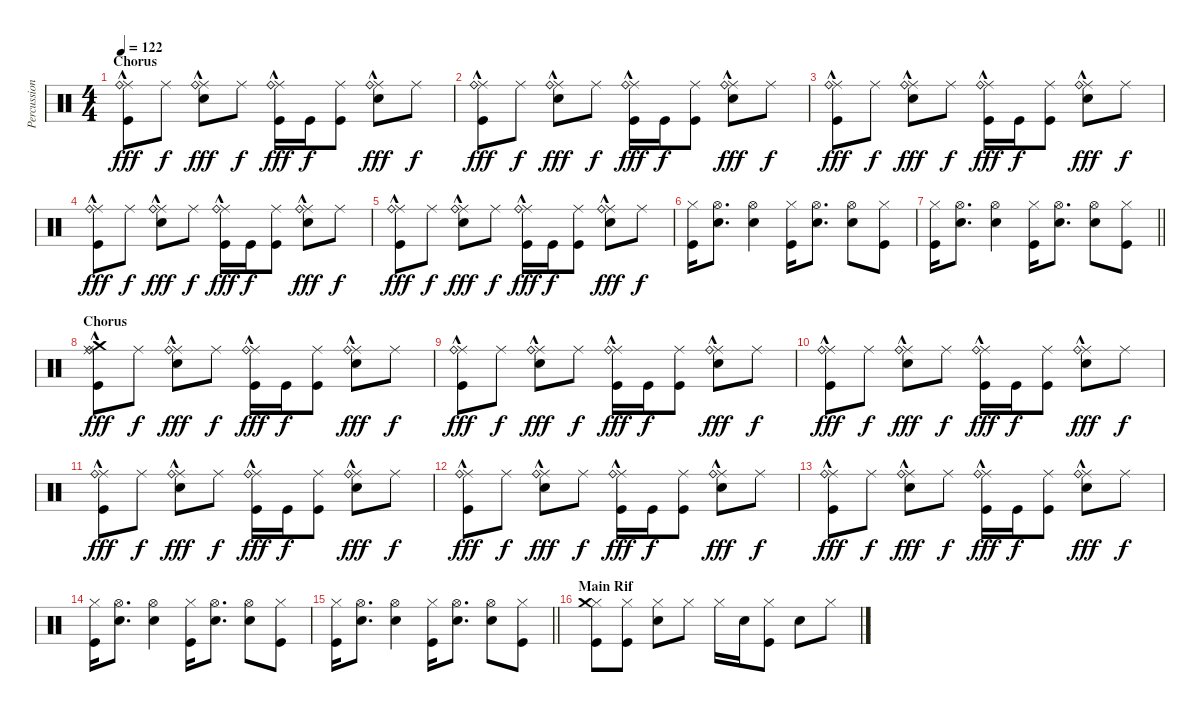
\track ("Percussion" "Percussion") {instrument percussion}
\staff {score}
\articulation defaults
\ts (4 4)
\section ("" "Chorus")
\tempo 122
\clef neutral
\ks c
("Ride (middle)" "Ride (bell)"{hac} "Kick (hit)").8{dy fff} "Ride (middle)".8{dy f} ("Ride (middle)" "Ride (bell)"{hac} "Snare (hit) 2").8{dy fff} "Ride (middle)".8{dy f} ("Ride (middle)" "Ride (bell)"{hac} "Kick (hit)").16{dy fff} "Kick (hit)".16{dy f} ("Ride (middle)" "Kick (hit)").8 ("Ride (middle)" "Ride (bell)"{hac} "Snare (hit) 2").8{dy fff} "Ride (middle)".8{dy f} |
("Ride (middle)" "Ride (bell)"{hac} "Kick (hit)").8{dy fff} "Ride (middle)".8{dy f} ("Ride (middle)" "Ride (bell)"{hac} "Snare (hit) 2").8{dy fff} "Ride (middle)".8{dy f} ("Ride (middle)" "Ride (bell)"{hac} "Kick (hit)").16{dy fff} "Kick (hit)".16{dy f} ("Ride (middle)" "Kick (hit)").8 ("Ride (middle)" "Ride (bell)"{hac} "Snare (hit) 2").8{dy fff} "Ride (middle)".8{dy f} |
("Ride (middle)" "Ride (bell)"{hac} "Kick (hit)").8{dy fff} "Ride (middle)".8{dy f} ("Ride (middle)" "Ride (bell)"{hac} "Snare (hit) 2").8{dy fff} "Ride (middle)".8{dy f} ("Ride (middle)" "Ride (bell)"{hac} "Kick (hit)").16{dy fff} "Kick (hit)".16{dy f} ("Ride (middle)" "Kick (hit)").8 ("Ride (middle)" "Ride (bell)"{hac} "Snare (hit) 2").8{dy fff} "Ride (middle)".8{dy f} |
("Ride (middle)" "Ride (bell)"{hac} "Kick (hit)").8{dy fff} "Ride (middle)".8{dy f} ("Ride (middle)" "Ride (bell)"{hac} "Snare (hit) 2").8{dy fff} "Ride (middle)".8{dy f} ("Ride (middle)" "Ride (bell)"{hac} "Kick (hit)").16{dy fff} "Kick (hit)".16{dy f} ("Ride (middle)" "Kick (hit)").8 ("Ride (middle)" "Ride (bell)"{hac} "Snare (hit) 2").8{dy fff} "Ride (middle)".8{dy f} |
("Ride (middle)" "Ride (bell)"{hac} "Kick (hit)").8{dy fff} "Ride (middle)".8{dy f} ("Ride (middle)" "Ride (bell)"{hac} "Snare (hit) 2").8{dy fff} "Ride (middle)".8{dy f} ("Ride (middle)" "Ride (bell)"{hac} "Kick (hit)").16{dy fff} "Kick (hit)".16{dy f} ("Ride (middle)" "Kick (hit)").8 ("Ride (middle)" "Ride (bell)"{hac} "Snare (hit) 2").8{dy fff} "Ride (middle)".8{dy f} |
("Hi-Hat (closed)" "Kick (hit)").16 ("Hi-Hat (open)" "Snare (hit) 2").8{d} ("Hi-Hat (open)" "Snare (hit) 2").4 ("Hi-Hat (closed)" "Kick (hit)").16 ("Hi-Hat (open)" "Snare (hit) 2").8{d} ("Hi-Hat (open)" "Snare (hit) 2").8 ("Hi-Hat (closed)" "Kick (hit)").8 |
\barLineRight lightlight
("Hi-Hat (closed)" "Kick (hit)").16 ("Hi-Hat (open)" "Snare (hit) 2").8{d} ("Hi-Hat (open)" "Snare (hit) 2").4 ("Hi-Hat (closed)" "Kick (hit)").16 ("Hi-Hat (open)" "Snare (hit) 2").8{d} ("Hi-Hat (open)" "Snare (hit) 2").8 ("Hi-Hat (closed)" "Kick (hit)").8 |
\section ("" "Chorus")
("Ride (middle)" "Ride (bell)"{hac} "Crash medium (hit)" "Kick (hit)").8{dy fff} "Ride (middle)".8{dy f} ("Ride (middle)" "Ride (bell)"{hac} "Snare (hit) 2").8{dy fff} "Ride (middle)".8{dy f} ("Ride (middle)" "Ride (bell)"{hac} "Kick (hit)").16{dy fff} "Kick (hit)".16{dy f} ("Ride (middle)" "Kick (hit)").8 ("Ride (middle)" "Ride (bell)"{hac} "Snare (hit) 2").8{dy fff} "Ride (middle)".8{dy f} |
("Ride (middle)" "Ride (bell)"{hac} "Kick (hit)").8{dy fff} "Ride (middle)".8{dy f} ("Ride (middle)" "Ride (bell)"{hac} "Snare (hit) 2").8{dy fff} "Ride (middle)".8{dy f} ("Ride (middle)" "Ride (bell)"{hac} "Kick (hit)").16{dy fff} "Kick (hit)".16{dy f} ("Ride (middle)" "Kick (hit)").8 ("Ride (middle)" "Ride (bell)"{hac} "Snare (hit) 2").8{dy fff} "Ride (middle)".8{dy f} |
("Ride (middle)" "Ride (bell)"{hac} "Kick (hit)").8{dy fff} "Ride (middle)".8{dy f} ("Ride (middle)" "Ride (bell)"{hac} "Snare (hit) 2").8{dy fff} "Ride (middle)".8{dy f} ("Ride (middle)" "Ride (bell)"{hac} "Kick (hit)").16{dy fff} "Kick (hit)".16{dy f} ("Ride (middle)" "Kick (hit)").8 ("Ride (middle)" "Ride (bell)"{hac} "Snare (hit) 2").8{dy fff} "Ride (middle)".8{dy f} |
("Ride (middle)" "Ride (bell)"{hac} "Kick (hit)").8{dy fff} "Ride (middle)".8{dy f} ("Ride (middle)" "Ride (bell)"{hac} "Snare (hit) 2").8{dy fff} "Ride (middle)".8{dy f} ("Ride (middle)" "Ride (bell)"{hac} "Kick (hit)").16{dy fff} "Kick (hit)".16{dy f} ("Ride (middle)" "Kick (hit)").8 ("Ride (middle)" "Ride (bell)"{hac} "Snare (hit) 2").8{dy fff} "Ride (middle)".8{dy f} |
("Ride (middle)" "Ride (bell)"{hac} "Kick (hit)").8{dy fff} "Ride (middle)".8{dy f} ("Ride (middle)" "Ride (bell)"{hac} "Snare (hit) 2").8{dy fff} "Ride (middle)".8{dy f} ("Ride (middle)" "Ride (bell)"{hac} "Kick (hit)").16{dy fff} "Kick (hit)".16{dy f} ("Ride (middle)" "Kick (hit)").8 ("Ride (middle)" "Ride (bell)"{hac} "Snare (hit) 2").8{dy fff} "Ride (middle)".8{dy f} |
("Ride (middle)" "Ride (bell)"{hac} "Kick (hit)").8{dy fff} "Ride (middle)".8{dy f} ("Ride (middle)" "Ride (bell)"{hac} "Snare (hit) 2").8{dy fff} "Ride (middle)".8{dy f} ("Ride (middle)" "Ride (bell)"{hac} "Kick (hit)").16{dy fff} "Kick (hit)".16{dy f} ("Ride (middle)" "Kick (hit)").8 ("Ride (middle)" "Ride (bell)"{hac} "Snare (hit) 2").8{dy fff} "Ride (middle)".8{dy f} |
("Hi-Hat (closed)" "Kick (hit)").16 ("Hi-Hat (open)" "Snare (hit) 2").8{d} ("Hi-Hat (open)" "Snare (hit) 2").4 ("Hi-Hat (closed)" "Kick (hit)").16 ("Hi-Hat (open)" "Snare (hit) 2").8{d} ("Hi-Hat (open)" "Snare (hit) 2").8 ("Hi-Hat (closed)" "Kick (hit)").8 |
\barLineRight lightlight
("Hi-Hat (closed)" "Kick (hit)").16 ("Hi-Hat (open)" "Snare (hit) 2").8{d} ("Hi-Hat (open)" "Snare (hit) 2").4 ("Hi-Hat (closed)" "Kick (hit)").16 ("Hi-Hat (open)" "Snare (hit) 2").8{d} ("Hi-Hat (open)" "Snare (hit) 2").8 ("Hi-Hat (closed)" "Kick (hit)").8 |
\section ("" "Main Rif")
("Hi-Hat (closed)" "Crash medium (hit)" "Kick (hit)").8 ("Hi-Hat (closed)" "Kick (hit)").8 ("Hi-Hat (closed)" "Snare (hit) 2").8 "Hi-Hat (closed)".8 "Hi-Hat (closed)".16 "Snare (hit) 2".16 ("Hi-Hat (closed)" "Kick (hit)").8 "Snare (hit) 2".8 "Hi-Hat (closed)".8
